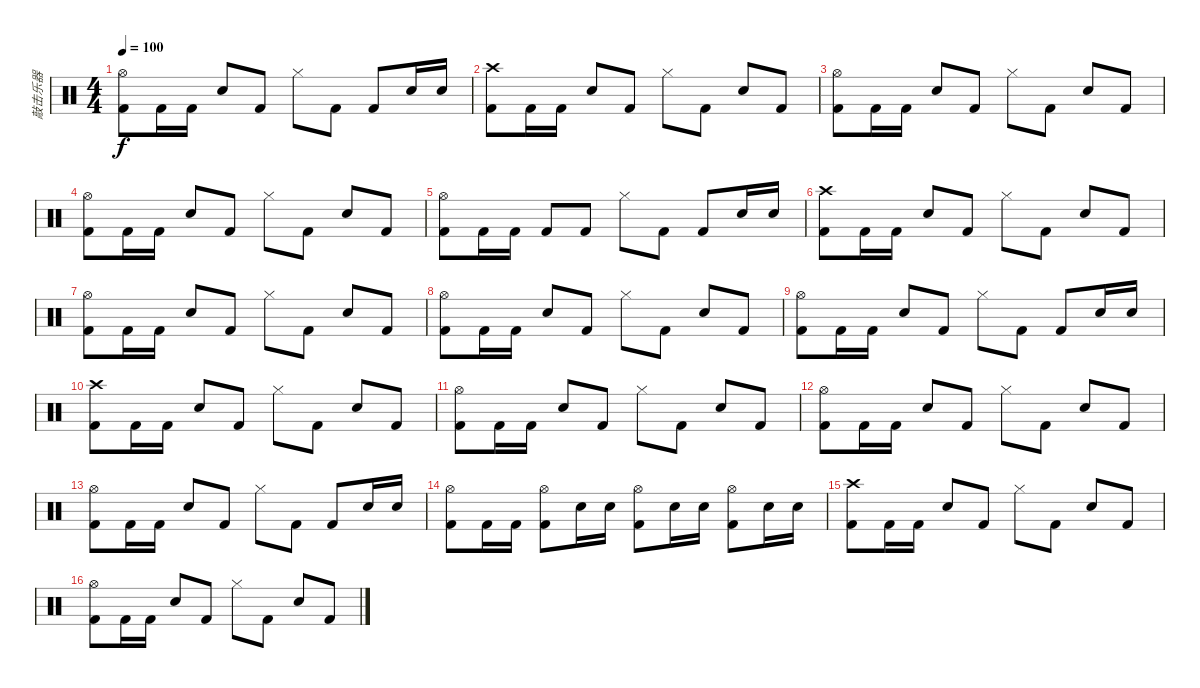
\track ("敲击乐器" "敲击乐器") {instrument percussion}
\staff {score}
\articulation defaults
\ts (4 4)
\tempo 100
\clef neutral
\ks c
("Kick (hit) 2" "Hi-Hat (open)").8{dy f} "Kick (hit) 2".16 "Kick (hit) 2".16 "Metronome (bell)".8 "Kick (hit) 2".8 "Hi-Hat (closed)".8 "Kick (hit) 2".8 "Kick (hit) 2".8 "Metronome (bell)".16 "Metronome (bell)".16 |
("Kick (hit) 2" "Crash high (hit)").8 "Kick (hit) 2".16 "Kick (hit) 2".16 "Metronome (bell)".8 "Kick (hit) 2".8 "Hi-Hat (closed)".8 "Kick (hit) 2".8 "Metronome (bell)".8 "Kick (hit) 2".8 |
("Kick (hit) 2" "Hi-Hat (open)").8 "Kick (hit) 2".16 "Kick (hit) 2".16 "Metronome (bell)".8 "Kick (hit) 2".8 "Hi-Hat (closed)".8 "Kick (hit) 2".8 "Metronome (bell)".8 "Kick (hit) 2".8 |
("Kick (hit) 2" "Hi-Hat (open)").8 "Kick (hit) 2".16 "Kick (hit) 2".16 "Metronome (bell)".8 "Kick (hit) 2".8 "Hi-Hat (closed)".8 "Kick (hit) 2".8 "Metronome (bell)".8 "Kick (hit) 2".8 |
("Kick (hit) 2" "Hi-Hat (open)").8 "Kick (hit) 2".16 "Kick (hit) 2".16 "Kick (hit) 2".8 "Kick (hit) 2".8 "Hi-Hat (closed)".8 "Kick (hit) 2".8 "Kick (hit) 2".8 "Metronome (bell)".16 "Metronome (bell)".16 |
("Kick (hit) 2" "Crash high (hit)").8 "Kick (hit) 2".16 "Kick (hit) 2".16 "Metronome (bell)".8 "Kick (hit) 2".8 "Hi-Hat (closed)".8 "Kick (hit) 2".8 "Metronome (bell)".8 "Kick (hit) 2".8 |
("Kick (hit) 2" "Hi-Hat (open)").8 "Kick (hit) 2".16 "Kick (hit) 2".16 "Metronome (bell)".8 "Kick (hit) 2".8 "Hi-Hat (closed)".8 "Kick (hit) 2".8 "Metronome (bell)".8 "Kick (hit) 2".8 |
("Kick (hit) 2" "Hi-Hat (open)").8 "Kick (hit) 2".16 "Kick (hit) 2".16 "Metronome (bell)".8 "Kick (hit) 2".8 "Hi-Hat (closed)".8 "Kick (hit) 2".8 "Metronome (bell)".8 "Kick (hit) 2".8 |
("Kick (hit) 2" "Hi-Hat (open)").8 "Kick (hit) 2".16 "Kick (hit) 2".16 "Metronome (bell)".8 "Kick (hit) 2".8 "Hi-Hat (closed)".8 "Kick (hit) 2".8 "Kick (hit) 2".8 "Metronome (bell)".16 "Metronome (bell)".16 |
("Kick (hit) 2" "Crash high (hit)").8 "Kick (hit) 2".16 "Kick (hit) 2".16 "Metronome (bell)".8 "Kick (hit) 2".8 "Hi-Hat (closed)".8 "Kick (hit) 2".8 "Metronome (bell)".8 "Kick (hit) 2".8 |
("Kick (hit) 2" "Hi-Hat (open)").8 "Kick (hit) 2".16 "Kick (hit) 2".16 "Metronome (bell)".8 "Kick (hit) 2".8 "Hi-Hat (closed)".8 "Kick (hit) 2".8 "Metronome (bell)".8 "Kick (hit) 2".8 |
("Kick (hit) 2" "Hi-Hat (open)").8 "Kick (hit) 2".16 "Kick (hit) 2".16 "Metronome (bell)".8 "Kick (hit) 2".8 "Hi-Hat (closed)".8 "Kick (hit) 2".8 "Metronome (bell)".8 "Kick (hit) 2".8 |
("Kick (hit) 2" "Hi-Hat (open)").8 "Kick (hit) 2".16 "Kick (hit) 2".16 "Metronome (bell)".8 "Kick (hit) 2".8 "Hi-Hat (closed)".8 "Kick (hit) 2".8 "Kick (hit) 2".8 "Metronome (bell)".16 "Metronome (bell)".16 |
("Kick (hit) 2" "Hi-Hat (open)").8 "Kick (hit) 2".16 "Kick (hit) 2".16 ("Kick (hit) 2" "Hi-Hat (open)").8 "Metronome (bell)".16 "Metronome (bell)".16 ("Kick (hit) 2" "Hi-Hat (open)").8 "Metronome (bell)".16 "Metronome (bell)".16 ("Kick (hit) 2" "Hi-Hat (open)").8 "Metronome (bell)".16 "Metronome (bell)".16 |
("Kick (hit) 2" "Crash high (hit)").8 "Kick (hit) 2".16 "Kick (hit) 2".16 "Metronome (bell)".8 "Kick (hit) 2".8 "Hi-Hat (closed)".8 "Kick (hit) 2".8 "Metronome (bell)".8 "Kick (hit) 2".8 |
("Kick (hit) 2" "Hi-Hat (open)").8 "Kick (hit) 2".16 "Kick (hit) 2".16 "Metronome (bell)".8 "Kick (hit) 2".8 "Hi-Hat (closed)".8 "Kick (hit) 2".8 "Metronome (bell)".8 "Kick (hit) 2".8
